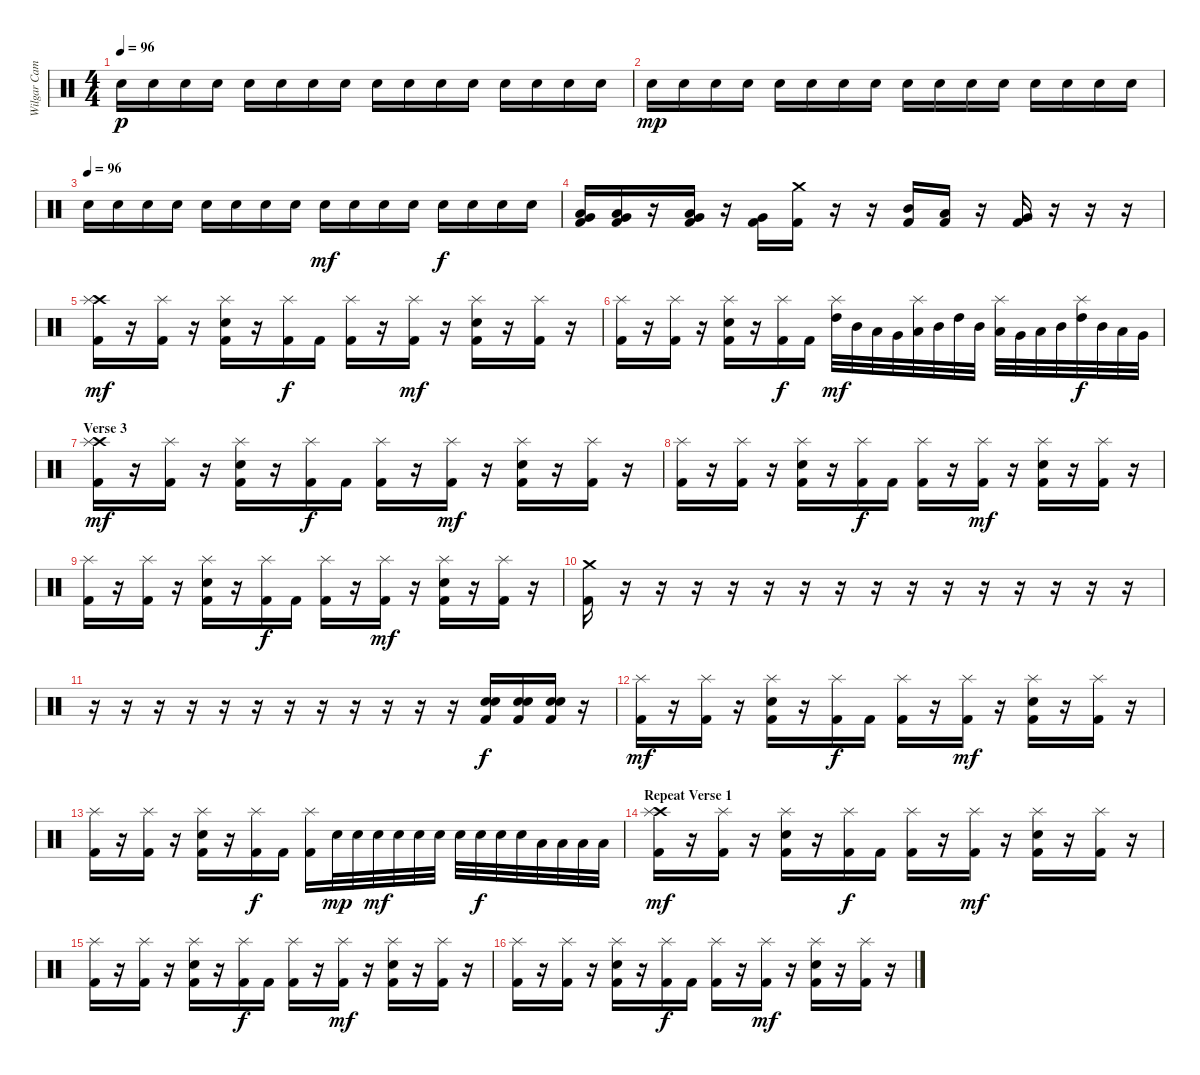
\track ("Wilgar Campbell" "Wilgar Cam") {instrument percussion}
\staff {score}
\articulation defaults
\ts (4 4)
\tempo 96
\clef neutral
\ks c "Electric Snare (hit)".16{dy p} "Snare (hit) 2".16 "Electric Snare (hit)".16 "Snare (hit) 2".16 "Electric Snare (hit)".16 "Snare (hit) 2".16 "Electric Snare (hit)".16 "Snare (hit) 2".16 "Electric Snare (hit)".16 "Snare (hit) 2".16 "Electric Snare (hit)".16 "Snare (hit) 2".16 "Electric Snare (hit)".16 "Snare (hit) 2".16 "Electric Snare (hit)".16 "Snare (hit) 2".16
|
"Electric Snare (hit)".16{dy mp} "Snare (hit) 2".16 "Electric Snare (hit)".16 "Snare (hit) 2".16 "Electric Snare (hit)".16 "Snare (hit) 2".16 "Electric Snare (hit)".16 "Snare (hit) 2".16 "Electric Snare (hit)".16 "Snare (hit) 2".16 "Electric Snare (hit)".16 "Snare (hit) 2".16 "Electric Snare (hit)".16 "Snare (hit) 2".16 "Electric Snare (hit)".16 "Snare (hit) 2".16 |
\tempo (96)
"Electric Snare (hit)".16 "Snare (hit) 2".16 "Electric Snare (hit)".16 "Snare (hit) 2".16 "Electric Snare (hit)".16 "Snare (hit) 2".16 "Electric Snare (hit)".16 "Snare (hit) 2".16 "Electric Snare (hit)".16{dy mf} "Snare (hit) 2".16 "Electric Snare (hit)".16 "Snare (hit) 2".16 "Electric Snare (hit)".16{dy f} "Snare (hit) 2".16 "Electric Snare (hit)".16 "Snare (hit) 2".16 |
("Very Low Tom (hit)" "Low Tom (hit)" "Kick (hit) 2").16 ("Very Low Tom (hit)" "Low Tom (hit)" "Kick (hit) 2").16 r.16 ("Very Low Tom (hit)" "Low Tom (hit)" "Kick (hit) 2").16 r.16 ("Very Low Tom (hit)" "Kick (hit) 2").16 ("Crash medium (hit)" "Kick (hit) 2").16 r.16 r.16 ("Mid Tom (hit)" "Kick (hit) 2").16 ("Low Tom (hit)" "Kick (hit) 2").16 r.16 ("Very Low Tom (hit)" "Kick (hit) 2").16 r.16 r.16 r.16 |
("Crash high (hit)" "Splash (hit)" "Kick (hit) 2").16{dy mf} r.16 ("Splash (hit)" "Kick (hit) 2").16 r.16 ("Splash (hit)" "Snare (hit) 2" "Kick (hit) 2").16 r.16 ("Splash (hit)" "Kick (hit) 2").16{dy f} "Kick (hit) 2".16 ("Splash (hit)" "Kick (hit) 2").16 r.16 ("Splash (hit)" "Kick (hit) 2").16{dy mf} r.16 ("Splash (hit)" "Snare (hit) 2" "Kick (hit) 2").16 r.16 ("Splash (hit)" "Kick (hit) 2").16 r.16 |
("Splash (hit)" "Kick (hit) 2").16 r.16 ("Splash (hit)" "Kick (hit) 2").16 r.16 ("Splash (hit)" "Snare (hit) 2" "Kick (hit) 2").16 r.16 ("Splash (hit)" "Kick (hit) 2").16{dy f} "Kick (hit) 2".16 ("Splash (hit)" "High Tom (hit)").32{dy mf} "Mid Tom (hit)".32 "Low Tom (hit)".32 "Very Low Tom (hit)".32 ("Splash (hit)" "Low Tom (hit)").32 "Mid Tom (hit)".32 "High Tom (hit)".32 "Mid Tom (hit)".32 ("Splash (hit)" "Low Tom (hit)").32 "Very Low Tom (hit)".32 "Low Tom (hit)".32 "Mid Tom (hit)".32 ("Splash (hit)" "High Tom (hit)").32{dy f} "Mid Tom (hit)".32 "Low Tom (hit)".32 "Very Low Tom (hit)".32 |
\section ("" "Verse 3")
("Crash high (hit)" "Splash (hit)" "Kick (hit) 2").16{dy mf} r.16 ("Splash (hit)" "Kick (hit) 2").16 r.16 ("Splash (hit)" "Snare (hit) 2" "Kick (hit) 2").16 r.16 ("Splash (hit)" "Kick (hit) 2").16{dy f} "Kick (hit) 2".16 ("Splash (hit)" "Kick (hit) 2").16 r.16 ("Splash (hit)" "Kick (hit) 2").16{dy mf} r.16 ("Splash (hit)" "Snare (hit) 2" "Kick (hit) 2").16 r.16 ("Splash (hit)" "Kick (hit) 2").16 r.16 |
("Splash (hit)" "Kick (hit) 2").16 r.16 ("Splash (hit)" "Kick (hit) 2").16 r.16 ("Splash (hit)" "Snare (hit) 2" "Kick (hit) 2").16 r.16 ("Splash (hit)" "Kick (hit) 2").16{dy f} "Kick (hit) 2".16 ("Splash (hit)" "Kick (hit) 2").16 r.16 ("Splash (hit)" "Kick (hit) 2").16{dy mf} r.16 ("Splash (hit)" "Snare (hit) 2" "Kick (hit) 2").16 r.16 ("Splash (hit)" "Kick (hit) 2").16 r.16 |
("Splash (hit)" "Kick (hit) 2").16 r.16 ("Splash (hit)" "Kick (hit) 2").16 r.16 ("Splash (hit)" "Snare (hit) 2" "Kick (hit) 2").16 r.16 ("Splash (hit)" "Kick (hit) 2").16{dy f} "Kick (hit) 2".16 ("Splash (hit)" "Kick (hit) 2").16 r.16 ("Splash (hit)" "Kick (hit) 2").16{dy mf} r.16 ("Splash (hit)" "Snare (hit) 2" "Kick (hit) 2").16 r.16 ("Splash (hit)" "Kick (hit) 2").16 r.16 |
("Crash medium (hit)" "Kick (hit) 2").16 r.16 r.16 r.16 r.16 r.16 r.16 r.16 r.16 r.16 r.16 r.16 r.16 r.16 r.16 r.16 |
r.16 r.16 r.16 r.16 r.16 r.16 r.16 r.16 r.16 r.16 r.16 r.16 ("Electric Snare (hit)" "Snare (hit) 2" "Kick (hit) 2").16{dy f} ("Electric Snare (hit)" "Snare (hit) 2" "Kick (hit) 2").16 ("Electric Snare (hit)" "Snare (hit) 2" "Kick (hit) 2").16 r.16 |
("Splash (hit)" "Kick (hit) 2").16{dy mf} r.16 ("Splash (hit)" "Kick (hit) 2").16 r.16 ("Splash (hit)" "Snare (hit) 2" "Kick (hit) 2").16 r.16 ("Splash (hit)" "Kick (hit) 2").16{dy f} "Kick (hit) 2".16 ("Splash (hit)" "Kick (hit) 2").16 r.16 ("Splash (hit)" "Kick (hit) 2").16{dy mf} r.16 ("Splash (hit)" "Snare (hit) 2" "Kick (hit) 2").16 r.16 ("Splash (hit)" "Kick (hit) 2").16 r.16 |
("Splash (hit)" "Kick (hit) 2").16 r.16 ("Splash (hit)" "Kick (hit) 2").16 r.16 ("Splash (hit)" "Snare (hit) 2" "Kick (hit) 2").16 r.16 ("Splash (hit)" "Kick (hit) 2").16{dy f} "Kick (hit) 2".16 ("Splash (hit)" "Kick (hit) 2").16 "Snare (hit) 2".32{dy mp} "Snare (hit) 2".32 "Snare (hit) 2".32{dy mf} "Snare (hit) 2".32 "Snare (hit) 2".32 "Snare (hit) 2".32 "Electric Snare (hit)".32 "Snare (hit) 2".32{dy f} "Snare (hit) 2".32 "Snare (hit) 2".32 "Low Tom (hit)".32 "Low Tom (hit)".32 "Low Tom (hit)".32 "Low Tom (hit)".32 |
\section ("" "Repeat Verse 1")
("Crash high (hit)" "Splash (hit)" "Kick (hit) 2").16{dy mf} r.16 ("Splash (hit)" "Kick (hit) 2").16 r.16 ("Splash (hit)" "Snare (hit) 2" "Kick (hit) 2").16 r.16 ("Splash (hit)" "Kick (hit) 2").16{dy f} "Kick (hit) 2".16 ("Splash (hit)" "Kick (hit) 2").16 r.16 ("Splash (hit)" "Kick (hit) 2").16{dy mf} r.16 ("Splash (hit)" "Snare (hit) 2" "Kick (hit) 2").16 r.16 ("Splash (hit)" "Kick (hit) 2").16 r.16 |
("Splash (hit)" "Kick (hit) 2").16 r.16 ("Splash (hit)" "Kick (hit) 2").16 r.16 ("Splash (hit)" "Snare (hit) 2" "Kick (hit) 2").16 r.16 ("Splash (hit)" "Kick (hit) 2").16{dy f} "Kick (hit) 2".16 ("Splash (hit)" "Kick (hit) 2").16 r.16 ("Splash (hit)" "Kick (hit) 2").16{dy mf} r.16 ("Splash (hit)" "Snare (hit) 2" "Kick (hit) 2").16 r.16 ("Splash (hit)" "Kick (hit) 2").16 r.16 |
("Splash (hit)" "Kick (hit) 2").16 r.16 ("Splash (hit)" "Kick (hit) 2").16 r.16 ("Splash (hit)" "Snare (hit) 2" "Kick (hit) 2").16 r.16 ("Splash (hit)" "Kick (hit) 2").16{dy f} "Kick (hit) 2".16 ("Splash (hit)" "Kick (hit) 2").16 r.16 ("Splash (hit)" "Kick (hit) 2").16{dy mf} r.16 ("Splash (hit)" "Snare (hit) 2" "Kick (hit) 2").16 r.16 ("Splash (hit)" "Kick (hit) 2").16 r.16
